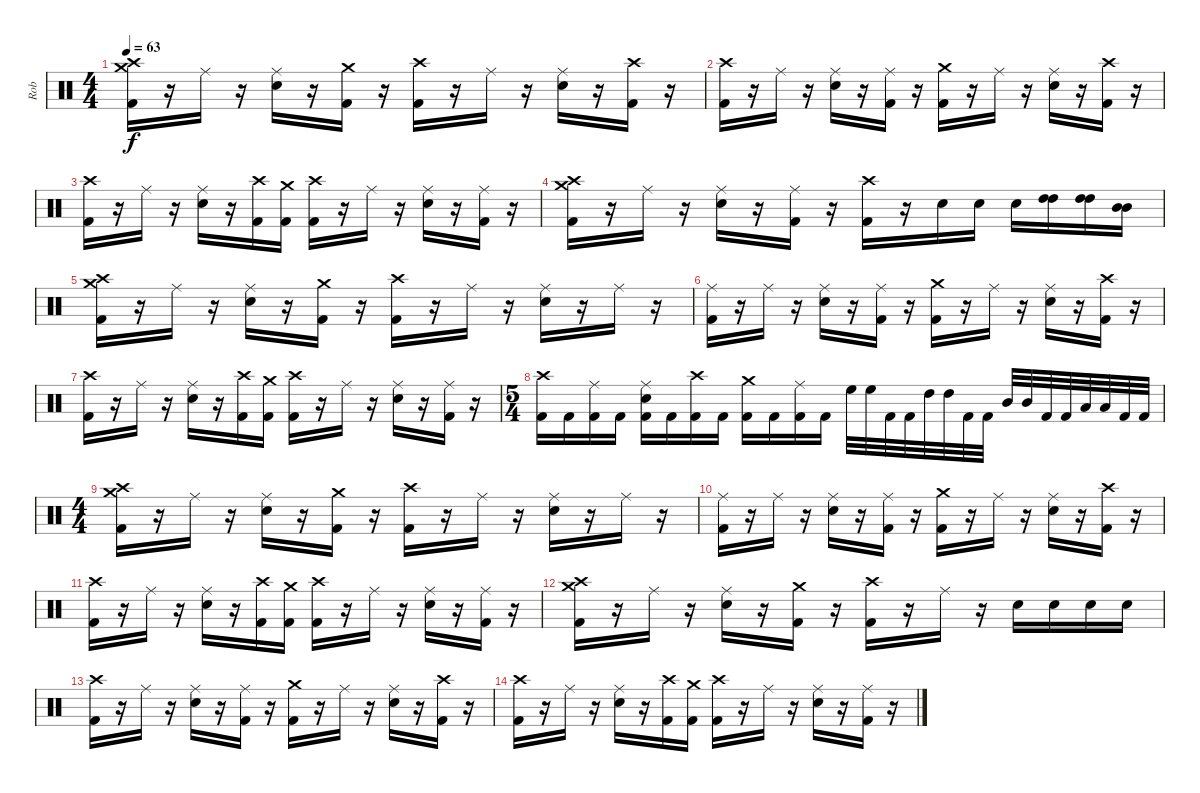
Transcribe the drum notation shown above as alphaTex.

\track ("Rob" "Rob") {instrument percussion}
\staff {score}
\articulation defaults
\ts (4 4)
\tempo 63
\clef neutral
\ks c
("Crash medium (hit)" "Crash high (hit)" "Kick (hit) 2").16{dy f} r.16 "Ride (middle)".16 r.16 ("Ride (middle)" "Electric Snare (hit)").16 r.16 ("Crash medium (hit)" "Kick (hit) 2").16 r.16 ("Crash high (hit)" "Kick (hit) 2").16 r.16 "Ride (middle)".16 r.16 ("Ride (middle)" "Electric Snare (hit)").16 r.16 ("Crash high (hit)" "Kick (hit) 2").16 r.16 |
("Crash high (hit)" "Kick (hit) 2").16 r.16 "Ride (middle)".16 r.16 ("Ride (middle)" "Electric Snare (hit)").16 r.16 ("Ride (middle)" "Kick (hit) 2").16 r.16 ("Crash medium (hit)" "Kick (hit) 2").16 r.16 "Ride (middle)".16 r.16 ("Ride (middle)" "Electric Snare (hit)").16 r.16 ("Crash high (hit)" "Kick (hit) 2").16 r.16 |
("Crash high (hit)" "Kick (hit) 2").16 r.16 "Ride (middle)".16 r.16 ("Ride (middle)" "Electric Snare (hit)").16 r.16 ("Crash high (hit)" "Kick (hit) 2").16 ("Crash medium (hit)" "Kick (hit) 2").16 ("Crash high (hit)" "Kick (hit) 2").16 r.16 "Ride (middle)".16 r.16 ("Ride (middle)" "Electric Snare (hit)").16 r.16 ("Ride (middle)" "Kick (hit) 2").16 r.16 |
("Crash medium (hit)" "Crash high (hit)" "Kick (hit) 2").16 r.16 "Ride (middle)".16 r.16 ("Ride (middle)" "Electric Snare (hit)").16 r.16 ("Ride (middle)" "Kick (hit) 2").16 r.16 ("Crash high (hit)" "Kick (hit) 2").16 r.16 "Electric Snare (hit)".16 "Electric Snare (hit)".16 "Electric Snare (hit)".16 ("High Tom (hit)" "High Tom (hit)").16 ("High Tom (hit)" "High Tom (hit)").16 ("Mid Tom (hit)" "Mid Tom (hit)").16 |
("Crash medium (hit)" "Crash high (hit)" "Kick (hit) 2").16 r.16 "Ride (middle)".16 r.16 ("Ride (middle)" "Electric Snare (hit)").16 r.16 ("Crash medium (hit)" "Kick (hit) 2").16 r.16 ("Crash high (hit)" "Kick (hit) 2").16 r.16 "Ride (middle)".16 r.16 ("Ride (middle)" "Electric Snare (hit)").16 r.16 "Ride (middle)".16 r.16 |
("Ride (middle)" "Kick (hit) 2").16 r.16 "Ride (middle)".16 r.16 ("Ride (middle)" "Electric Snare (hit)").16 r.16 ("Ride (middle)" "Kick (hit) 2").16 r.16 ("Crash medium (hit)" "Kick (hit) 2").16 r.16 "Ride (middle)".16 r.16 ("Ride (middle)" "Electric Snare (hit)").16 r.16 ("Crash high (hit)" "Kick (hit) 2").16 r.16 |
("Crash high (hit)" "Kick (hit) 2").16 r.16 "Ride (middle)".16 r.16 ("Ride (middle)" "Electric Snare (hit)").16 r.16 ("Crash high (hit)" "Kick (hit) 2").16 ("Crash medium (hit)" "Kick (hit) 2").16 ("Crash high (hit)" "Kick (hit) 2").16 r.16 "Ride (middle)".16 r.16 ("Ride (middle)" "Electric Snare (hit)").16 r.16 ("Ride (middle)" "Kick (hit) 2").16 r.16 |
\ts (5 4)
("Crash high (hit)" "Kick (hit) 2").16 "Kick (hit) 2".16 ("Ride (middle)" "Kick (hit) 2").16 "Kick (hit) 2".16 ("Ride (middle)" "Electric Snare (hit)" "Kick (hit) 2").16 "Kick (hit) 2".16 ("Crash high (hit)" "Kick (hit) 2").16 "Kick (hit) 2".16 ("Crash medium (hit)" "Kick (hit) 2").16 "Kick (hit) 2".16 ("Ride (middle)" "Kick (hit) 2").16 "Kick (hit) 2".16 "High Floor Tom (hit)".32 "High Floor Tom (hit)".32 "Kick (hit) 2".32 "Kick (hit) 2".32 "High Tom (hit)".32 "High Tom (hit)".32 "Kick (hit) 2".32 "Kick (hit) 2".32 "Mid Tom (hit)".32 "Mid Tom (hit)".32 "Kick (hit) 2".32 "Kick (hit) 2".32 "Low Tom (hit)".32 "Low Tom (hit)".32 "Kick (hit) 2".32 "Kick (hit) 2".32 |
\ts (4 4)
("Crash medium (hit)" "Crash high (hit)" "Kick (hit) 2").16 r.16 "Ride (middle)".16 r.16 ("Ride (middle)" "Electric Snare (hit)").16 r.16 ("Crash medium (hit)" "Kick (hit) 2").16 r.16 ("Crash high (hit)" "Kick (hit) 2").16 r.16 "Ride (middle)".16 r.16 ("Ride (middle)" "Electric Snare (hit)").16 r.16 "Ride (middle)".16 r.16 |
("Ride (middle)" "Kick (hit) 2").16 r.16 "Ride (middle)".16 r.16 ("Ride (middle)" "Electric Snare (hit)").16 r.16 ("Ride (middle)" "Kick (hit) 2").16 r.16 ("Crash medium (hit)" "Kick (hit) 2").16 r.16 "Ride (middle)".16 r.16 ("Ride (middle)" "Electric Snare (hit)").16 r.16 ("Crash high (hit)" "Kick (hit) 2").16 r.16 |
("Crash high (hit)" "Kick (hit) 2").16 r.16 "Ride (middle)".16 r.16 ("Ride (middle)" "Electric Snare (hit)").16 r.16 ("Crash high (hit)" "Kick (hit) 2").16 ("Crash medium (hit)" "Kick (hit) 2").16 ("Crash high (hit)" "Kick (hit) 2").16 r.16 "Ride (middle)".16 r.16 ("Ride (middle)" "Electric Snare (hit)").16 r.16 ("Ride (middle)" "Kick (hit) 2").16 r.16 |
("Crash medium (hit)" "Crash high (hit)" "Kick (hit) 2").16 r.16 "Ride (middle)".16 r.16 ("Ride (middle)" "Electric Snare (hit)").16 r.16 ("Crash medium (hit)" "Kick (hit) 2").16 r.16 ("Crash high (hit)" "Kick (hit) 2").16 r.16 "Ride (middle)".16 r.16 "Electric Snare (hit)".16 "Electric Snare (hit)".16 "Electric Snare (hit)".16 "Electric Snare (hit)".16 |
("Crash high (hit)" "Kick (hit) 2").16 r.16 "Ride (middle)".16 r.16 ("Ride (middle)" "Electric Snare (hit)").16 r.16 ("Ride (middle)" "Kick (hit) 2").16 r.16 ("Crash medium (hit)" "Kick (hit) 2").16 r.16 "Ride (middle)".16 r.16 ("Ride (middle)" "Electric Snare (hit)").16 r.16 ("Crash high (hit)" "Kick (hit) 2").16 r.16 |
("Crash high (hit)" "Kick (hit) 2").16 r.16 "Ride (middle)".16 r.16 ("Ride (middle)" "Electric Snare (hit)").16 r.16 ("Crash high (hit)" "Kick (hit) 2").16 ("Crash medium (hit)" "Kick (hit) 2").16 ("Crash high (hit)" "Kick (hit) 2").16 r.16 "Ride (middle)".16 r.16 ("Ride (middle)" "Electric Snare (hit)").16 r.16 ("Ride (middle)" "Kick (hit) 2").16 r.16
